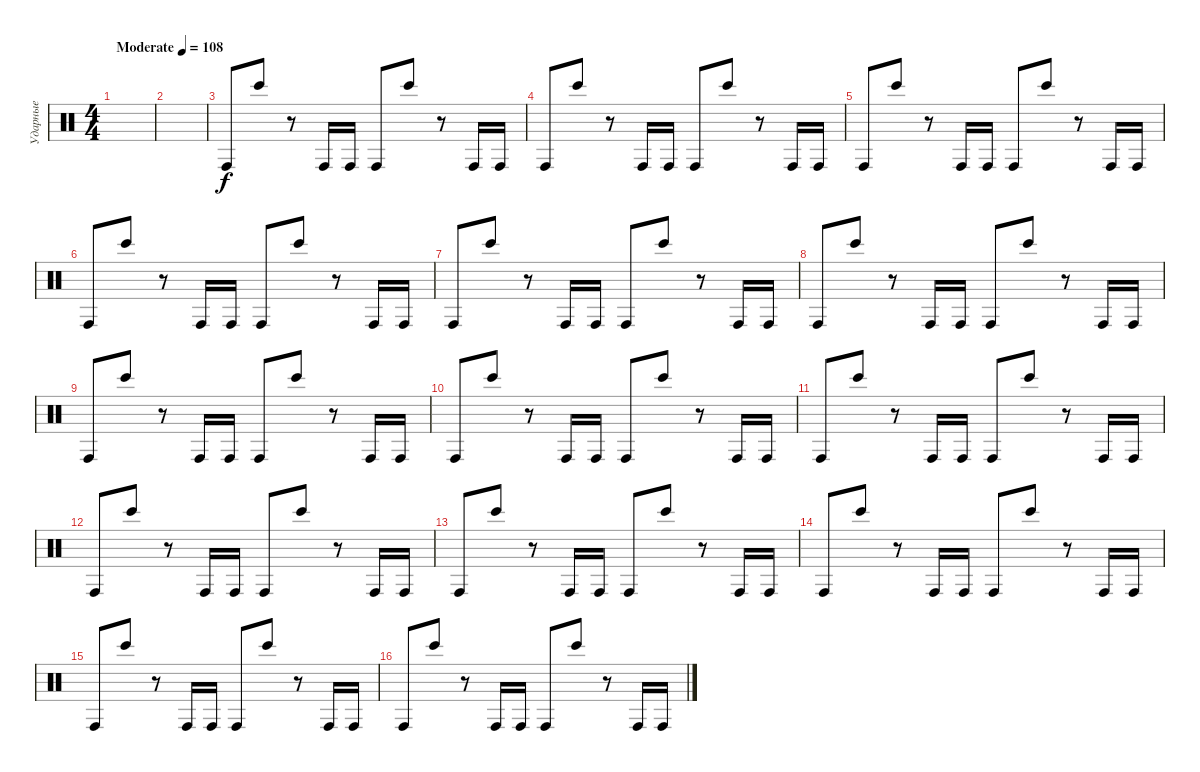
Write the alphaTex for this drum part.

\track ("Ударные" "Ударные") {instrument percussion}
\staff {score}
\articulation defaults
\ts (4 4)
\tempo (108 "Moderate")
\clef neutral
\ks c
|
|
"Conga high (hit)".8 "Bongo High (hit)".8 r.8 "Conga high (hit)".16 "Conga high (hit)".16 "Conga high (hit)".8 "Bongo High (hit)".8 r.8 "Conga high (hit)".16 "Conga high (hit)".16 |
"Conga high (hit)".8 "Bongo High (hit)".8 r.8 "Conga high (hit)".16 "Conga high (hit)".16 "Conga high (hit)".8 "Bongo High (hit)".8 r.8 "Conga high (hit)".16 "Conga high (hit)".16 |
"Conga high (hit)".8 "Bongo High (hit)".8 r.8 "Conga high (hit)".16 "Conga high (hit)".16 "Conga high (hit)".8 "Bongo High (hit)".8 r.8 "Conga high (hit)".16 "Conga high (hit)".16 |
"Conga high (hit)".8 "Bongo High (hit)".8 r.8 "Conga high (hit)".16 "Conga high (hit)".16 "Conga high (hit)".8 "Bongo High (hit)".8 r.8 "Conga high (hit)".16 "Conga high (hit)".16 |
"Conga high (hit)".8 "Bongo High (hit)".8 r.8 "Conga high (hit)".16 "Conga high (hit)".16 "Conga high (hit)".8 "Bongo High (hit)".8 r.8 "Conga high (hit)".16 "Conga high (hit)".16 |
"Conga high (hit)".8 "Bongo High (hit)".8 r.8 "Conga high (hit)".16 "Conga high (hit)".16 "Conga high (hit)".8 "Bongo High (hit)".8 r.8 "Conga high (hit)".16 "Conga high (hit)".16 |
"Conga high (hit)".8 "Bongo High (hit)".8 r.8 "Conga high (hit)".16 "Conga high (hit)".16 "Conga high (hit)".8 "Bongo High (hit)".8 r.8 "Conga high (hit)".16 "Conga high (hit)".16 |
"Conga high (hit)".8 "Bongo High (hit)".8 r.8 "Conga high (hit)".16 "Conga high (hit)".16 "Conga high (hit)".8 "Bongo High (hit)".8 r.8 "Conga high (hit)".16 "Conga high (hit)".16 |
"Conga high (hit)".8 "Bongo High (hit)".8 r.8 "Conga high (hit)".16 "Conga high (hit)".16 "Conga high (hit)".8 "Bongo High (hit)".8 r.8 "Conga high (hit)".16 "Conga high (hit)".16 |
"Conga high (hit)".8 "Bongo High (hit)".8 r.8 "Conga high (hit)".16 "Conga high (hit)".16 "Conga high (hit)".8 "Bongo High (hit)".8 r.8 "Conga high (hit)".16 "Conga high (hit)".16 |
"Conga high (hit)".8 "Bongo High (hit)".8 r.8 "Conga high (hit)".16 "Conga high (hit)".16 "Conga high (hit)".8 "Bongo High (hit)".8 r.8 "Conga high (hit)".16 "Conga high (hit)".16 |
"Conga high (hit)".8 "Bongo High (hit)".8 r.8 "Conga high (hit)".16 "Conga high (hit)".16 "Conga high (hit)".8 "Bongo High (hit)".8 r.8 "Conga high (hit)".16 "Conga high (hit)".16 |
"Conga high (hit)".8 "Bongo High (hit)".8 r.8 "Conga high (hit)".16 "Conga high (hit)".16 "Conga high (hit)".8 "Bongo High (hit)".8 r.8 "Conga high (hit)".16 "Conga high (hit)".16 |
"Conga high (hit)".8 "Bongo High (hit)".8 r.8 "Conga high (hit)".16 "Conga high (hit)".16 "Conga high (hit)".8 "Bongo High (hit)".8 r.8 "Conga high (hit)".16 "Conga high (hit)".16
